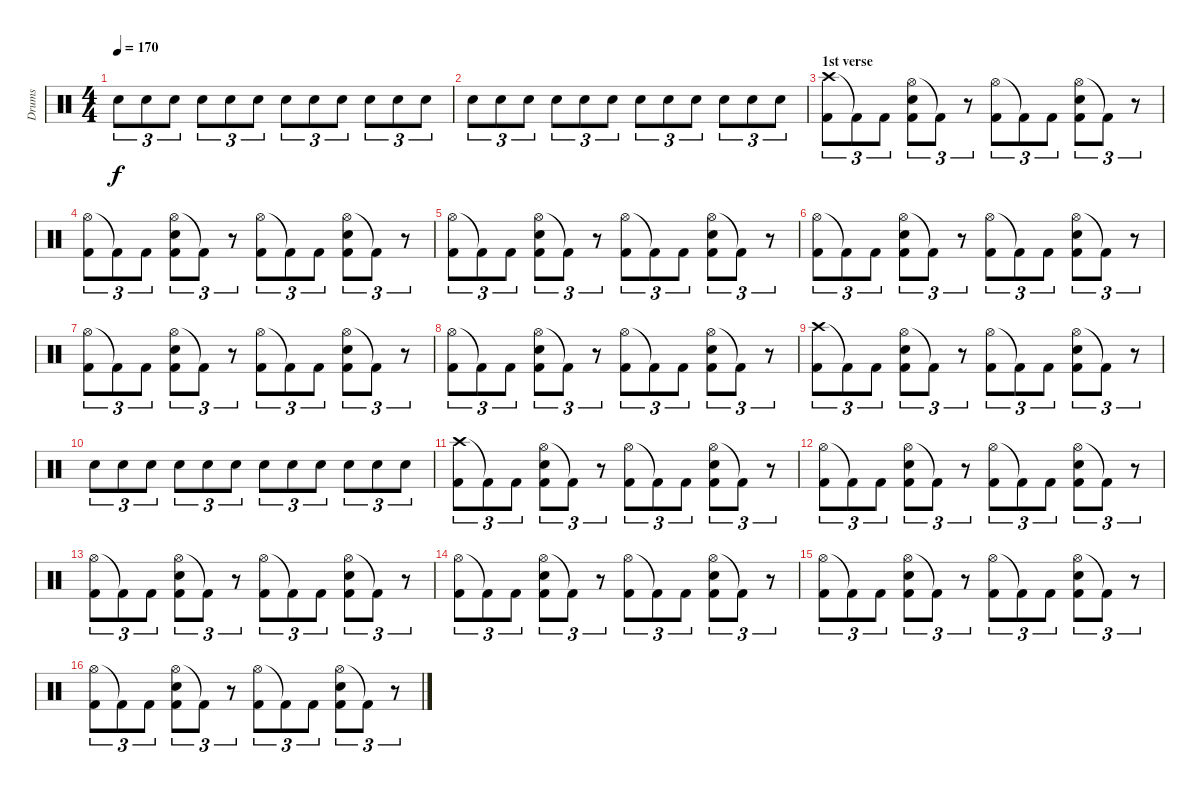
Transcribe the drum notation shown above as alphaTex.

\track ("Drums" "Drums") {instrument percussion}
\staff {score}
\articulation defaults
\ts (4 4)
\tempo 170
\clef neutral
\ks c "Snare (hit) 2".8{tu (3 2) dy f} "Snare (hit) 2".8{tu (3 2)} "Snare (hit) 2".8{tu (3 2)} "Snare (hit) 2".8{tu (3 2)} "Snare (hit) 2".8{tu (3 2)} "Snare (hit) 2".8{tu (3 2)} "Snare (hit) 2".8{tu (3 2)} "Snare (hit) 2".8{tu (3 2)} "Snare (hit) 2".8{tu (3 2)} "Snare (hit) 2".8{tu (3 2)} "Snare (hit) 2".8{tu (3 2)} "Snare (hit) 2".8{tu (3 2)}
|
"Snare (hit) 2".8{tu (3 2)} "Snare (hit) 2".8{tu (3 2)} "Snare (hit) 2".8{tu (3 2)} "Snare (hit) 2".8{tu (3 2)} "Snare (hit) 2".8{tu (3 2)} "Snare (hit) 2".8{tu (3 2)} "Snare (hit) 2".8{tu (3 2)} "Snare (hit) 2".8{tu (3 2)} "Snare (hit) 2".8{tu (3 2)} "Snare (hit) 2".8{tu (3 2)} "Snare (hit) 2".8{tu (3 2)} "Snare (hit) 2".8{tu (3 2)} |
\section ("" "1st verse")
("Crash high (hit)" "Kick (hit) 2").8{tu (3 2)} "Kick (hit) 2"{t}.8{tu (3 2)} "Kick (hit) 2".8{tu (3 2)} ("Hi-Hat (open)" "Snare (hit) 2" "Kick (hit) 2").8{tu (3 2)} "Kick (hit) 2"{t}.8{tu (3 2)} r.8{tu (3 2)} ("Hi-Hat (open)" "Kick (hit) 2").8{tu (3 2)} "Kick (hit) 2"{t}.8{tu (3 2)} "Kick (hit) 2".8{tu (3 2)} ("Hi-Hat (open)" "Snare (hit) 2" "Kick (hit) 2").8{tu (3 2)} "Kick (hit) 2"{t}.8{tu (3 2)} r.8{tu (3 2)} |
("Hi-Hat (open)" "Kick (hit) 2").8{tu (3 2)} "Kick (hit) 2"{t}.8{tu (3 2)} "Kick (hit) 2".8{tu (3 2)} ("Hi-Hat (open)" "Snare (hit) 2" "Kick (hit) 2").8{tu (3 2)} "Kick (hit) 2"{t}.8{tu (3 2)} r.8{tu (3 2)} ("Hi-Hat (open)" "Kick (hit) 2").8{tu (3 2)} "Kick (hit) 2"{t}.8{tu (3 2)} "Kick (hit) 2".8{tu (3 2)} ("Hi-Hat (open)" "Snare (hit) 2" "Kick (hit) 2").8{tu (3 2)} "Kick (hit) 2"{t}.8{tu (3 2)} r.8{tu (3 2)} |
("Hi-Hat (open)" "Kick (hit) 2").8{tu (3 2)} "Kick (hit) 2"{t}.8{tu (3 2)} "Kick (hit) 2".8{tu (3 2)} ("Hi-Hat (open)" "Snare (hit) 2" "Kick (hit) 2").8{tu (3 2)} "Kick (hit) 2"{t}.8{tu (3 2)} r.8{tu (3 2)} ("Hi-Hat (open)" "Kick (hit) 2").8{tu (3 2)} "Kick (hit) 2"{t}.8{tu (3 2)} "Kick (hit) 2".8{tu (3 2)} ("Hi-Hat (open)" "Snare (hit) 2" "Kick (hit) 2").8{tu (3 2)} "Kick (hit) 2"{t}.8{tu (3 2)} r.8{tu (3 2)} |
("Hi-Hat (open)" "Kick (hit) 2").8{tu (3 2)} "Kick (hit) 2"{t}.8{tu (3 2)} "Kick (hit) 2".8{tu (3 2)} ("Hi-Hat (open)" "Snare (hit) 2" "Kick (hit) 2").8{tu (3 2)} "Kick (hit) 2"{t}.8{tu (3 2)} r.8{tu (3 2)} ("Hi-Hat (open)" "Kick (hit) 2").8{tu (3 2)} "Kick (hit) 2"{t}.8{tu (3 2)} "Kick (hit) 2".8{tu (3 2)} ("Hi-Hat (open)" "Snare (hit) 2" "Kick (hit) 2").8{tu (3 2)} "Kick (hit) 2"{t}.8{tu (3 2)} r.8{tu (3 2)} |
("Hi-Hat (open)" "Kick (hit) 2").8{tu (3 2)} "Kick (hit) 2"{t}.8{tu (3 2)} "Kick (hit) 2".8{tu (3 2)} ("Hi-Hat (open)" "Snare (hit) 2" "Kick (hit) 2").8{tu (3 2)} "Kick (hit) 2"{t}.8{tu (3 2)} r.8{tu (3 2)} ("Hi-Hat (open)" "Kick (hit) 2").8{tu (3 2)} "Kick (hit) 2"{t}.8{tu (3 2)} "Kick (hit) 2".8{tu (3 2)} ("Hi-Hat (open)" "Snare (hit) 2" "Kick (hit) 2").8{tu (3 2)} "Kick (hit) 2"{t}.8{tu (3 2)} r.8{tu (3 2)} |
("Hi-Hat (open)" "Kick (hit) 2").8{tu (3 2)} "Kick (hit) 2"{t}.8{tu (3 2)} "Kick (hit) 2".8{tu (3 2)} ("Hi-Hat (open)" "Snare (hit) 2" "Kick (hit) 2").8{tu (3 2)} "Kick (hit) 2"{t}.8{tu (3 2)} r.8{tu (3 2)} ("Hi-Hat (open)" "Kick (hit) 2").8{tu (3 2)} "Kick (hit) 2"{t}.8{tu (3 2)} "Kick (hit) 2".8{tu (3 2)} ("Hi-Hat (open)" "Snare (hit) 2" "Kick (hit) 2").8{tu (3 2)} "Kick (hit) 2"{t}.8{tu (3 2)} r.8{tu (3 2)} |
("Crash high (hit)" "Kick (hit) 2").8{tu (3 2)} "Kick (hit) 2"{t}.8{tu (3 2)} "Kick (hit) 2".8{tu (3 2)} ("Hi-Hat (open)" "Snare (hit) 2" "Kick (hit) 2").8{tu (3 2)} "Kick (hit) 2"{t}.8{tu (3 2)} r.8{tu (3 2)} ("Hi-Hat (open)" "Kick (hit) 2").8{tu (3 2)} "Kick (hit) 2"{t}.8{tu (3 2)} "Kick (hit) 2".8{tu (3 2)} ("Hi-Hat (open)" "Snare (hit) 2" "Kick (hit) 2").8{tu (3 2)} "Kick (hit) 2"{t}.8{tu (3 2)} r.8{tu (3 2)} |
"Snare (hit) 2".8{tu (3 2)} "Snare (hit) 2".8{tu (3 2)} "Snare (hit) 2".8{tu (3 2)} "Snare (hit) 2".8{tu (3 2)} "Snare (hit) 2".8{tu (3 2)} "Snare (hit) 2".8{tu (3 2)} "Snare (hit) 2".8{tu (3 2)} "Snare (hit) 2".8{tu (3 2)} "Snare (hit) 2".8{tu (3 2)} "Snare (hit) 2".8{tu (3 2)} "Snare (hit) 2".8{tu (3 2)} "Snare (hit) 2".8{tu (3 2)} |
("Crash high (hit)" "Kick (hit) 2").8{tu (3 2)} "Kick (hit) 2"{t}.8{tu (3 2)} "Kick (hit) 2".8{tu (3 2)} ("Hi-Hat (open)" "Snare (hit) 2" "Kick (hit) 2").8{tu (3 2)} "Kick (hit) 2"{t}.8{tu (3 2)} r.8{tu (3 2)} ("Hi-Hat (open)" "Kick (hit) 2").8{tu (3 2)} "Kick (hit) 2"{t}.8{tu (3 2)} "Kick (hit) 2".8{tu (3 2)} ("Hi-Hat (open)" "Snare (hit) 2" "Kick (hit) 2").8{tu (3 2)} "Kick (hit) 2"{t}.8{tu (3 2)} r.8{tu (3 2)} |
("Hi-Hat (open)" "Kick (hit) 2").8{tu (3 2)} "Kick (hit) 2"{t}.8{tu (3 2)} "Kick (hit) 2".8{tu (3 2)} ("Hi-Hat (open)" "Snare (hit) 2" "Kick (hit) 2").8{tu (3 2)} "Kick (hit) 2"{t}.8{tu (3 2)} r.8{tu (3 2)} ("Hi-Hat (open)" "Kick (hit) 2").8{tu (3 2)} "Kick (hit) 2"{t}.8{tu (3 2)} "Kick (hit) 2".8{tu (3 2)} ("Hi-Hat (open)" "Snare (hit) 2" "Kick (hit) 2").8{tu (3 2)} "Kick (hit) 2"{t}.8{tu (3 2)} r.8{tu (3 2)} |
("Hi-Hat (open)" "Kick (hit) 2").8{tu (3 2)} "Kick (hit) 2"{t}.8{tu (3 2)} "Kick (hit) 2".8{tu (3 2)} ("Hi-Hat (open)" "Snare (hit) 2" "Kick (hit) 2").8{tu (3 2)} "Kick (hit) 2"{t}.8{tu (3 2)} r.8{tu (3 2)} ("Hi-Hat (open)" "Kick (hit) 2").8{tu (3 2)} "Kick (hit) 2"{t}.8{tu (3 2)} "Kick (hit) 2".8{tu (3 2)} ("Hi-Hat (open)" "Snare (hit) 2" "Kick (hit) 2").8{tu (3 2)} "Kick (hit) 2"{t}.8{tu (3 2)} r.8{tu (3 2)} |
("Hi-Hat (open)" "Kick (hit) 2").8{tu (3 2)} "Kick (hit) 2"{t}.8{tu (3 2)} "Kick (hit) 2".8{tu (3 2)} ("Hi-Hat (open)" "Snare (hit) 2" "Kick (hit) 2").8{tu (3 2)} "Kick (hit) 2"{t}.8{tu (3 2)} r.8{tu (3 2)} ("Hi-Hat (open)" "Kick (hit) 2").8{tu (3 2)} "Kick (hit) 2"{t}.8{tu (3 2)} "Kick (hit) 2".8{tu (3 2)} ("Hi-Hat (open)" "Snare (hit) 2" "Kick (hit) 2").8{tu (3 2)} "Kick (hit) 2"{t}.8{tu (3 2)} r.8{tu (3 2)} |
("Hi-Hat (open)" "Kick (hit) 2").8{tu (3 2)} "Kick (hit) 2"{t}.8{tu (3 2)} "Kick (hit) 2".8{tu (3 2)} ("Hi-Hat (open)" "Snare (hit) 2" "Kick (hit) 2").8{tu (3 2)} "Kick (hit) 2"{t}.8{tu (3 2)} r.8{tu (3 2)} ("Hi-Hat (open)" "Kick (hit) 2").8{tu (3 2)} "Kick (hit) 2"{t}.8{tu (3 2)} "Kick (hit) 2".8{tu (3 2)} ("Hi-Hat (open)" "Snare (hit) 2" "Kick (hit) 2").8{tu (3 2)} "Kick (hit) 2"{t}.8{tu (3 2)} r.8{tu (3 2)} |
("Hi-Hat (open)" "Kick (hit) 2").8{tu (3 2)} "Kick (hit) 2"{t}.8{tu (3 2)} "Kick (hit) 2".8{tu (3 2)} ("Hi-Hat (open)" "Snare (hit) 2" "Kick (hit) 2").8{tu (3 2)} "Kick (hit) 2"{t}.8{tu (3 2)} r.8{tu (3 2)} ("Hi-Hat (open)" "Kick (hit) 2").8{tu (3 2)} "Kick (hit) 2"{t}.8{tu (3 2)} "Kick (hit) 2".8{tu (3 2)} ("Hi-Hat (open)" "Snare (hit) 2" "Kick (hit) 2").8{tu (3 2)} "Kick (hit) 2"{t}.8{tu (3 2)} r.8{tu (3 2)}
